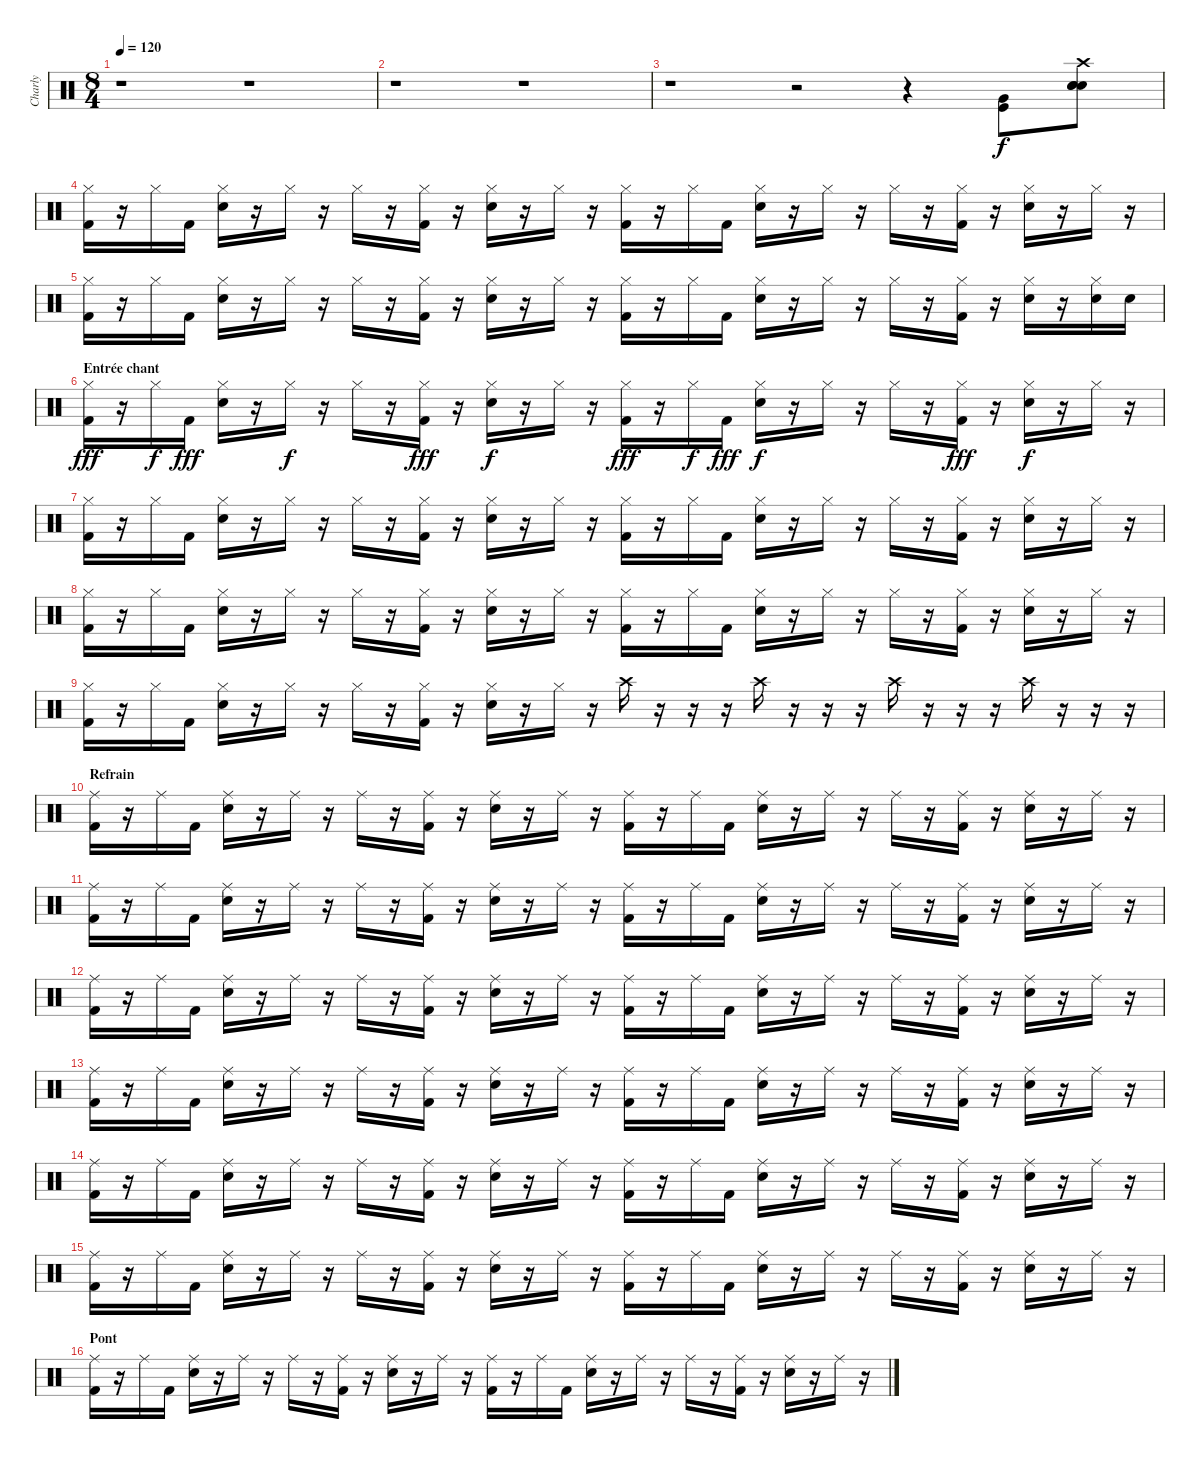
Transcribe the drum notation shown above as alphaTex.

\track ("Charly" "Charly") {instrument percussion}
\staff {score}
\articulation defaults
\ts (8 4)
\tempo 120
\clef neutral
\ks c
r.1{dy f} r.1 |
r.1 r.1 |
r.1 r.2 r.4 ("Kick (hit)" "Very Low Tom (hit)").8 ("Snare (hit) 2" "Snare (hit) 2" "Snare (hit) 2" "Crash high (hit)").8 |
("Hi-Hat (closed)" "Kick (hit) 2").16 r.16 "Hi-Hat (closed)".16 "Kick (hit) 2".16 ("Hi-Hat (closed)" "Snare (hit) 2").16 r.16 "Hi-Hat (closed)".16 r.16 "Hi-Hat (closed)".16 r.16 ("Hi-Hat (closed)" "Kick (hit) 2").16 r.16 ("Hi-Hat (closed)" "Snare (hit) 2").16 r.16 "Hi-Hat (closed)".16 r.16 ("Hi-Hat (closed)" "Kick (hit) 2").16 r.16 "Hi-Hat (closed)".16 "Kick (hit) 2".16 ("Hi-Hat (closed)" "Snare (hit) 2").16 r.16 "Hi-Hat (closed)".16 r.16 "Hi-Hat (closed)".16 r.16 ("Hi-Hat (closed)" "Kick (hit) 2").16 r.16 ("Hi-Hat (closed)" "Snare (hit) 2").16 r.16 "Hi-Hat (closed)".16 r.16 |
("Hi-Hat (closed)" "Kick (hit) 2").16 r.16 "Hi-Hat (closed)".16 "Kick (hit) 2".16 ("Hi-Hat (closed)" "Snare (hit) 2").16 r.16 "Hi-Hat (closed)".16 r.16 "Hi-Hat (closed)".16 r.16 ("Hi-Hat (closed)" "Kick (hit) 2").16 r.16 ("Hi-Hat (closed)" "Snare (hit) 2").16 r.16 "Hi-Hat (closed)".16 r.16 ("Hi-Hat (closed)" "Kick (hit) 2").16 r.16 "Hi-Hat (closed)".16 "Kick (hit) 2".16 ("Hi-Hat (closed)" "Snare (hit) 2").16 r.16 "Hi-Hat (closed)".16 r.16 "Hi-Hat (closed)".16 r.16 ("Hi-Hat (closed)" "Kick (hit) 2").16 r.16 ("Hi-Hat (closed)" "Snare (hit) 2").16 r.16 ("Hi-Hat (closed)" "Snare (hit) 2").16 "Snare (hit) 2".16 |
\section ("" "Entrée chant")
("Hi-Hat (closed)" "Kick (hit) 2").16{dy fff} r.16 "Hi-Hat (closed)".16{dy f} "Kick (hit) 2".16{dy fff} ("Hi-Hat (closed)" "Snare (hit) 2").16 r.16 "Hi-Hat (closed)".16{dy f} r.16 "Hi-Hat (closed)".16 r.16 ("Hi-Hat (closed)" "Kick (hit) 2").16{dy fff} r.16 ("Hi-Hat (closed)" "Snare (hit) 2").16{dy f} r.16 "Hi-Hat (closed)".16 r.16 ("Hi-Hat (closed)" "Kick (hit) 2").16{dy fff} r.16 "Hi-Hat (closed)".16{dy f} "Kick (hit) 2".16{dy fff} ("Hi-Hat (closed)" "Snare (hit) 2").16{dy f} r.16 "Hi-Hat (closed)".16 r.16 "Hi-Hat (closed)".16 r.16 ("Hi-Hat (closed)" "Kick (hit) 2").16{dy fff} r.16 ("Hi-Hat (closed)" "Snare (hit) 2").16{dy f} r.16 "Hi-Hat (closed)".16 r.16 |
("Hi-Hat (closed)" "Kick (hit) 2").16 r.16 "Hi-Hat (closed)".16 "Kick (hit) 2".16 ("Hi-Hat (closed)" "Snare (hit) 2").16 r.16 "Hi-Hat (closed)".16 r.16 "Hi-Hat (closed)".16 r.16 ("Hi-Hat (closed)" "Kick (hit) 2").16 r.16 ("Hi-Hat (closed)" "Snare (hit) 2").16 r.16 "Hi-Hat (closed)".16 r.16 ("Hi-Hat (closed)" "Kick (hit) 2").16 r.16 "Hi-Hat (closed)".16 "Kick (hit) 2".16 ("Hi-Hat (closed)" "Snare (hit) 2").16 r.16 "Hi-Hat (closed)".16 r.16 "Hi-Hat (closed)".16 r.16 ("Hi-Hat (closed)" "Kick (hit) 2").16 r.16 ("Hi-Hat (closed)" "Snare (hit) 2").16 r.16 "Hi-Hat (closed)".16 r.16 |
("Hi-Hat (closed)" "Kick (hit) 2").16 r.16 "Hi-Hat (closed)".16 "Kick (hit) 2".16 ("Hi-Hat (closed)" "Snare (hit) 2").16 r.16 "Hi-Hat (closed)".16 r.16 "Hi-Hat (closed)".16 r.16 ("Hi-Hat (closed)" "Kick (hit) 2").16 r.16 ("Hi-Hat (closed)" "Snare (hit) 2").16 r.16 "Hi-Hat (closed)".16 r.16 ("Hi-Hat (closed)" "Kick (hit) 2").16 r.16 "Hi-Hat (closed)".16 "Kick (hit) 2".16 ("Hi-Hat (closed)" "Snare (hit) 2").16 r.16 "Hi-Hat (closed)".16 r.16 "Hi-Hat (closed)".16 r.16 ("Hi-Hat (closed)" "Kick (hit) 2").16 r.16 ("Hi-Hat (closed)" "Snare (hit) 2").16 r.16 "Hi-Hat (closed)".16 r.16 |
("Hi-Hat (closed)" "Kick (hit) 2").16 r.16 "Hi-Hat (closed)".16 "Kick (hit) 2".16 ("Hi-Hat (closed)" "Snare (hit) 2").16 r.16 "Hi-Hat (closed)".16 r.16 "Hi-Hat (closed)".16 r.16 ("Hi-Hat (closed)" "Kick (hit) 2").16 r.16 ("Hi-Hat (closed)" "Snare (hit) 2").16 r.16 "Hi-Hat (closed)".16 r.16 "Crash high (hit)".16 r.16 r.16 r.16 "Crash high (hit)".16 r.16 r.16 r.16 "Crash high (hit)".16 r.16 r.16 r.16 "Crash high (hit)".16 r.16 r.16 r.16 |
\section ("" "Refrain")
("Ride (middle)" "Kick (hit) 2").16 r.16 "Ride (middle)".16 "Kick (hit) 2".16 ("Ride (middle)" "Snare (hit) 2").16 r.16 "Ride (middle)".16 r.16 "Ride (middle)".16 r.16 ("Ride (middle)" "Kick (hit) 2").16 r.16 ("Ride (middle)" "Snare (hit) 2").16 r.16 "Ride (middle)".16 r.16 ("Ride (middle)" "Kick (hit) 2").16 r.16 "Ride (middle)".16 "Kick (hit) 2".16 ("Ride (middle)" "Snare (hit) 2").16 r.16 "Ride (middle)".16 r.16 "Ride (middle)".16 r.16 ("Ride (middle)" "Kick (hit) 2").16 r.16 ("Ride (middle)" "Snare (hit) 2").16 r.16 "Ride (middle)".16 r.16 |
("Ride (middle)" "Kick (hit) 2").16 r.16 "Ride (middle)".16 "Kick (hit) 2".16 ("Ride (middle)" "Snare (hit) 2").16 r.16 "Ride (middle)".16 r.16 "Ride (middle)".16 r.16 ("Ride (middle)" "Kick (hit) 2").16 r.16 ("Ride (middle)" "Snare (hit) 2").16 r.16 "Ride (middle)".16 r.16 ("Ride (middle)" "Kick (hit) 2").16 r.16 "Ride (middle)".16 "Kick (hit) 2".16 ("Ride (middle)" "Snare (hit) 2").16 r.16 "Ride (middle)".16 r.16 "Ride (middle)".16 r.16 ("Ride (middle)" "Kick (hit) 2").16 r.16 ("Ride (middle)" "Snare (hit) 2").16 r.16 "Ride (middle)".16 r.16 |
("Ride (middle)" "Kick (hit) 2").16 r.16 "Ride (middle)".16 "Kick (hit) 2".16 ("Ride (middle)" "Snare (hit) 2").16 r.16 "Ride (middle)".16 r.16 "Ride (middle)".16 r.16 ("Ride (middle)" "Kick (hit) 2").16 r.16 ("Ride (middle)" "Snare (hit) 2").16 r.16 "Ride (middle)".16 r.16 ("Ride (middle)" "Kick (hit) 2").16 r.16 "Ride (middle)".16 "Kick (hit) 2".16 ("Ride (middle)" "Snare (hit) 2").16 r.16 "Ride (middle)".16 r.16 "Ride (middle)".16 r.16 ("Ride (middle)" "Kick (hit) 2").16 r.16 ("Ride (middle)" "Snare (hit) 2").16 r.16 "Ride (middle)".16 r.16 |
("Ride (middle)" "Kick (hit) 2").16 r.16 "Ride (middle)".16 "Kick (hit) 2".16 ("Ride (middle)" "Snare (hit) 2").16 r.16 "Ride (middle)".16 r.16 "Ride (middle)".16 r.16 ("Ride (middle)" "Kick (hit) 2").16 r.16 ("Ride (middle)" "Snare (hit) 2").16 r.16 "Ride (middle)".16 r.16 ("Ride (middle)" "Kick (hit) 2").16 r.16 "Ride (middle)".16 "Kick (hit) 2".16 ("Ride (middle)" "Snare (hit) 2").16 r.16 "Ride (middle)".16 r.16 "Ride (middle)".16 r.16 ("Ride (middle)" "Kick (hit) 2").16 r.16 ("Ride (middle)" "Snare (hit) 2").16 r.16 "Ride (middle)".16 r.16 |
("Ride (middle)" "Kick (hit) 2").16 r.16 "Ride (middle)".16 "Kick (hit) 2".16 ("Ride (middle)" "Snare (hit) 2").16 r.16 "Ride (middle)".16 r.16 "Ride (middle)".16 r.16 ("Ride (middle)" "Kick (hit) 2").16 r.16 ("Ride (middle)" "Snare (hit) 2").16 r.16 "Ride (middle)".16 r.16 ("Ride (middle)" "Kick (hit) 2").16 r.16 "Ride (middle)".16 "Kick (hit) 2".16 ("Ride (middle)" "Snare (hit) 2").16 r.16 "Ride (middle)".16 r.16 "Ride (middle)".16 r.16 ("Ride (middle)" "Kick (hit) 2").16 r.16 ("Ride (middle)" "Snare (hit) 2").16 r.16 "Ride (middle)".16 r.16 |
("Ride (middle)" "Kick (hit) 2").16 r.16 "Ride (middle)".16 "Kick (hit) 2".16 ("Ride (middle)" "Snare (hit) 2").16 r.16 "Ride (middle)".16 r.16 "Ride (middle)".16 r.16 ("Ride (middle)" "Kick (hit) 2").16 r.16 ("Ride (middle)" "Snare (hit) 2").16 r.16 "Ride (middle)".16 r.16 ("Ride (middle)" "Kick (hit) 2").16 r.16 "Ride (middle)".16 "Kick (hit) 2".16 ("Ride (middle)" "Snare (hit) 2").16 r.16 "Ride (middle)".16 r.16 "Ride (middle)".16 r.16 ("Ride (middle)" "Kick (hit) 2").16 r.16 ("Ride (middle)" "Snare (hit) 2").16 r.16 "Ride (middle)".16 r.16 |
\section ("" "Pont")
("Ride (middle)" "Kick (hit) 2").16 r.16 "Ride (middle)".16 "Kick (hit) 2".16 ("Ride (middle)" "Snare (hit) 2").16 r.16 "Ride (middle)".16 r.16 "Ride (middle)".16 r.16 ("Ride (middle)" "Kick (hit) 2").16 r.16 ("Ride (middle)" "Snare (hit) 2").16 r.16 "Ride (middle)".16 r.16 ("Ride (middle)" "Kick (hit) 2").16 r.16 "Ride (middle)".16 "Kick (hit) 2".16 ("Ride (middle)" "Snare (hit) 2").16 r.16 "Ride (middle)".16 r.16 "Ride (middle)".16 r.16 ("Ride (middle)" "Kick (hit) 2").16 r.16 ("Ride (middle)" "Snare (hit) 2").16 r.16 "Ride (middle)".16 r.16
